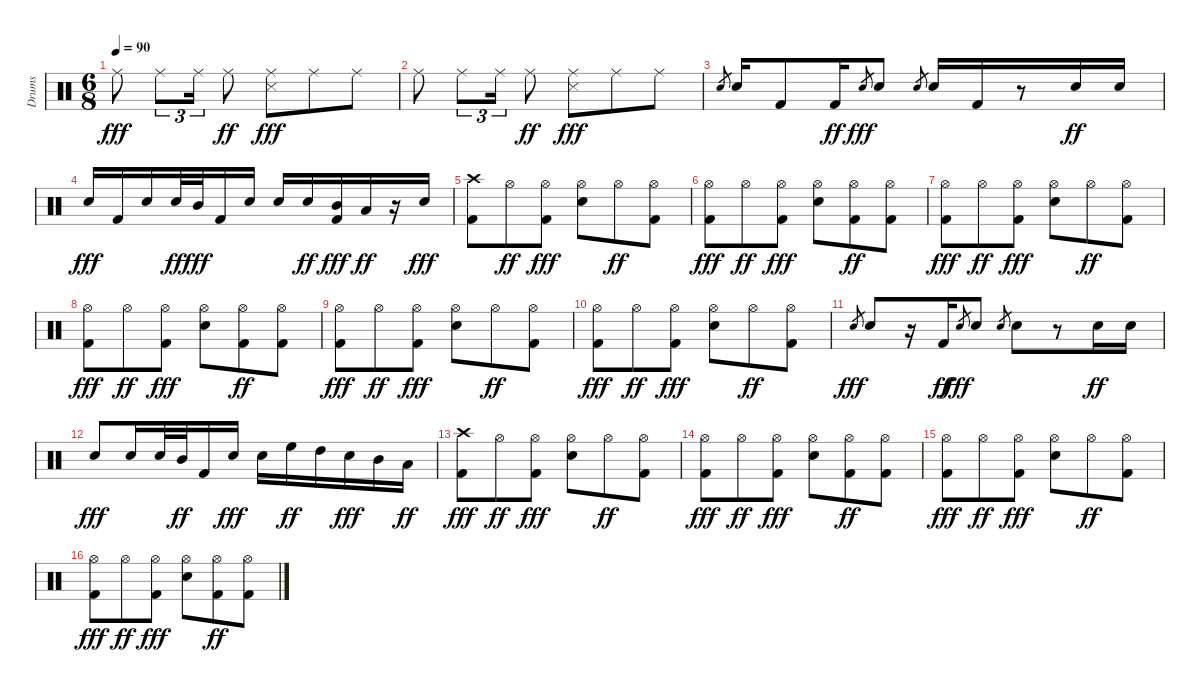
\track ("Drums" "Drums") {instrument percussion}
\staff {score}
\articulation defaults
\ts (6 8)
\tempo 90
\clef neutral
\ks c "Ride (middle)".8{dy fff} "Ride (middle)".8{tu (3 2)} "Ride (middle)".16{tu (3 2)} "Ride (middle)".8{dy ff}
("Ride (middle)" "Snare (side stick) 3").8{dy fff} "Ride (middle)".8 "Ride (middle)".8 |
"Ride (middle)".8 "Ride (middle)".8{tu (3 2)} "Ride (middle)".16{tu (3 2)} "Ride (middle)".8{dy ff} ("Ride (middle)" "Snare (side stick) 3").8{dy fff} "Ride (middle)".8 "Ride (middle)".8 |
"Snare (hit) 2".8{gr} "Snare (hit) 2".16 "Kick (hit) 2".8 "Kick (hit) 2".16{dy ff} "Snare (hit) 2".8{gr dy fff} "Snare (hit) 2".8 "Snare (hit) 2".8{gr} "Snare (hit) 2".16 "Kick (hit) 2".16 r.8 "Electric Snare (hit)".16{dy ff} "Electric Snare (hit)".16 |
"Snare (hit) 2".16{dy fff} "Kick (hit) 2".16 "Electric Snare (hit)".16 "Electric Snare (hit)".32{dy ff} "Mid Tom (hit)".32{dy fff} "Kick (hit) 2".16 "Electric Snare (hit)".16 "Snare (hit) 2".16 "Snare (hit) 2".16{dy ff} ("Mid Tom (hit)" "Kick (hit) 2").16{dy fff} "Low Tom (hit)".16{dy ff} r.16 "Snare (hit) 2".16{dy fff} |
("Kick (hit) 2" "Crash high (hit)").8 "Hi-Hat (open)".8{dy ff} ("Hi-Hat (open)" "Kick (hit) 2").8{dy fff} ("Hi-Hat (open)" "Snare (hit) 2").8 "Hi-Hat (open)".8{dy ff} ("Hi-Hat (open)" "Kick (hit) 2").8 |
("Hi-Hat (open)" "Kick (hit) 2").8{dy fff} "Hi-Hat (open)".8{dy ff} ("Hi-Hat (open)" "Kick (hit) 2").8{dy fff} ("Hi-Hat (open)" "Snare (hit) 2").8 ("Hi-Hat (open)" "Kick (hit) 2").8{dy ff} ("Hi-Hat (open)" "Kick (hit) 2").8 |
("Hi-Hat (open)" "Kick (hit) 2").8{dy fff} "Hi-Hat (open)".8{dy ff} ("Hi-Hat (open)" "Kick (hit) 2").8{dy fff} ("Hi-Hat (open)" "Snare (hit) 2").8 "Hi-Hat (open)".8{dy ff} ("Hi-Hat (open)" "Kick (hit) 2").8 |
("Hi-Hat (open)" "Kick (hit) 2").8{dy fff} "Hi-Hat (open)".8{dy ff} ("Hi-Hat (open)" "Kick (hit) 2").8{dy fff} ("Hi-Hat (open)" "Snare (hit) 2").8 ("Hi-Hat (open)" "Kick (hit) 2").8{dy ff} ("Hi-Hat (open)" "Kick (hit) 2").8 |
("Hi-Hat (open)" "Kick (hit) 2").8{dy fff} "Hi-Hat (open)".8{dy ff} ("Hi-Hat (open)" "Kick (hit) 2").8{dy fff} ("Hi-Hat (open)" "Snare (hit) 2").8 "Hi-Hat (open)".8{dy ff} ("Hi-Hat (open)" "Kick (hit) 2").8 |
("Hi-Hat (open)" "Kick (hit) 2").8{dy fff} "Hi-Hat (open)".8{dy ff} ("Hi-Hat (open)" "Kick (hit) 2").8{dy fff} ("Hi-Hat (open)" "Snare (hit) 2").8 "Hi-Hat (open)".8{dy ff} ("Hi-Hat (open)" "Kick (hit) 2").8 |
"Snare (hit) 2".8{gr dy fff} "Snare (hit) 2".8 r.16 "Kick (hit) 2".16{dy ff} "Snare (hit) 2".8{gr dy fff} "Snare (hit) 2".8 "Snare (hit) 2".8{gr} "Snare (hit) 2".8 r.8 "Snare (hit) 2".16{dy ff} "Snare (hit) 2".16 |
"Snare (hit) 2".8{dy fff} "Snare (hit) 2".16 "Snare (hit) 2".32 "Mid Tom (hit)".32{dy ff} "Kick (hit) 2".16 "Electric Snare (hit)".16{dy fff} "Snare (hit) 2".16 "High Floor Tom (hit)".16{dy ff} "High Tom (hit)".16 "Snare (hit) 2".16{dy fff} "Mid Tom (hit)".16 "Low Tom (hit)".16{dy ff} |
("Kick (hit) 2" "Crash high (hit)").8{dy fff} "Hi-Hat (open)".8{dy ff} ("Hi-Hat (open)" "Kick (hit) 2").8{dy fff} ("Hi-Hat (open)" "Snare (hit) 2").8 "Hi-Hat (open)".8{dy ff} ("Hi-Hat (open)" "Kick (hit) 2").8 |
("Hi-Hat (open)" "Kick (hit) 2").8{dy fff} "Hi-Hat (open)".8{dy ff} ("Hi-Hat (open)" "Kick (hit) 2").8{dy fff} ("Hi-Hat (open)" "Snare (hit) 2").8 ("Hi-Hat (open)" "Kick (hit) 2").8{dy ff} ("Hi-Hat (open)" "Kick (hit) 2").8 |
("Hi-Hat (open)" "Kick (hit) 2").8{dy fff} "Hi-Hat (open)".8{dy ff} ("Hi-Hat (open)" "Kick (hit) 2").8{dy fff} ("Hi-Hat (open)" "Snare (hit) 2").8 "Hi-Hat (open)".8{dy ff} ("Hi-Hat (open)" "Kick (hit) 2").8 |
("Hi-Hat (open)" "Kick (hit) 2").8{dy fff} "Hi-Hat (open)".8{dy ff} ("Hi-Hat (open)" "Kick (hit) 2").8{dy fff} ("Hi-Hat (open)" "Snare (hit) 2").8 ("Hi-Hat (open)" "Kick (hit) 2").8{dy ff} ("Hi-Hat (open)" "Kick (hit) 2").8
